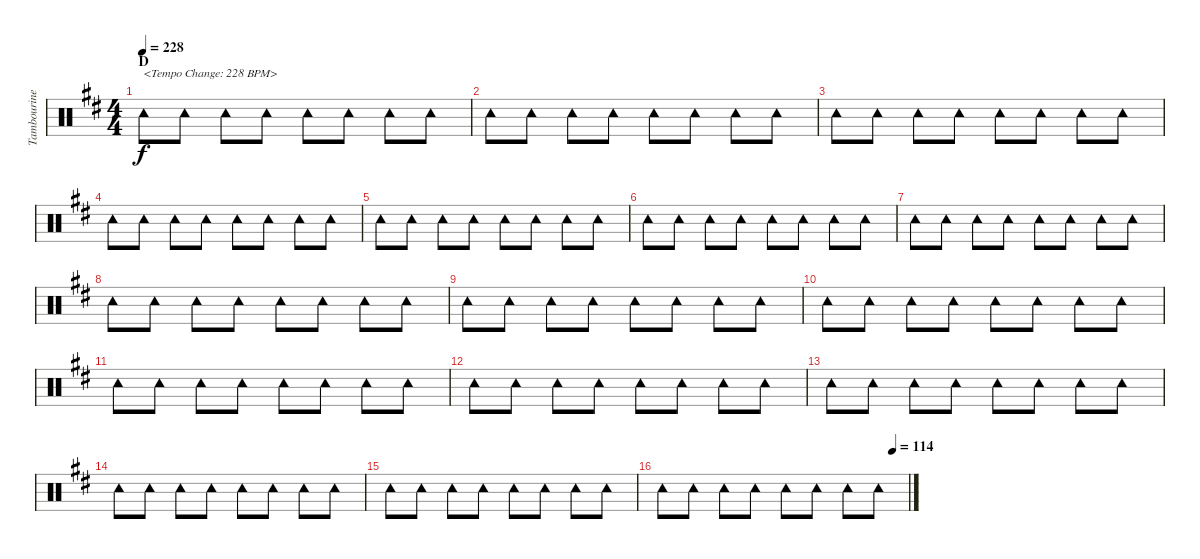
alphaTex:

\track ("Tambourine" "Tambourine") {instrument percussion}
\staff {score}
\articulation defaults
\ts (4 4)
\section ("" "D")
\tempo 228
\clef neutral
\ks d "Tambourine (hit)".8{txt "<Tempo Change: 228 BPM>" dy f} "Tambourine (hit)".8 "Tambourine (hit)".8 "Tambourine (hit)".8 "Tambourine (hit)".8 "Tambourine (hit)".8 "Tambourine (hit)".8 "Tambourine (hit)".8
|
"Tambourine (hit)".8 "Tambourine (hit)".8 "Tambourine (hit)".8 "Tambourine (hit)".8 "Tambourine (hit)".8 "Tambourine (hit)".8 "Tambourine (hit)".8 "Tambourine (hit)".8 |
"Tambourine (hit)".8 "Tambourine (hit)".8 "Tambourine (hit)".8 "Tambourine (hit)".8 "Tambourine (hit)".8 "Tambourine (hit)".8 "Tambourine (hit)".8 "Tambourine (hit)".8 |
"Tambourine (hit)".8 "Tambourine (hit)".8 "Tambourine (hit)".8 "Tambourine (hit)".8 "Tambourine (hit)".8 "Tambourine (hit)".8 "Tambourine (hit)".8 "Tambourine (hit)".8 |
"Tambourine (hit)".8 "Tambourine (hit)".8 "Tambourine (hit)".8 "Tambourine (hit)".8 "Tambourine (hit)".8 "Tambourine (hit)".8 "Tambourine (hit)".8 "Tambourine (hit)".8 |
"Tambourine (hit)".8 "Tambourine (hit)".8 "Tambourine (hit)".8 "Tambourine (hit)".8 "Tambourine (hit)".8 "Tambourine (hit)".8 "Tambourine (hit)".8 "Tambourine (hit)".8 |
"Tambourine (hit)".8 "Tambourine (hit)".8 "Tambourine (hit)".8 "Tambourine (hit)".8 "Tambourine (hit)".8 "Tambourine (hit)".8 "Tambourine (hit)".8 "Tambourine (hit)".8 |
"Tambourine (hit)".8 "Tambourine (hit)".8 "Tambourine (hit)".8 "Tambourine (hit)".8 "Tambourine (hit)".8 "Tambourine (hit)".8 "Tambourine (hit)".8 "Tambourine (hit)".8 |
"Tambourine (hit)".8 "Tambourine (hit)".8 "Tambourine (hit)".8 "Tambourine (hit)".8 "Tambourine (hit)".8 "Tambourine (hit)".8 "Tambourine (hit)".8 "Tambourine (hit)".8 |
"Tambourine (hit)".8 "Tambourine (hit)".8 "Tambourine (hit)".8 "Tambourine (hit)".8 "Tambourine (hit)".8 "Tambourine (hit)".8 "Tambourine (hit)".8 "Tambourine (hit)".8 |
"Tambourine (hit)".8 "Tambourine (hit)".8 "Tambourine (hit)".8 "Tambourine (hit)".8 "Tambourine (hit)".8 "Tambourine (hit)".8 "Tambourine (hit)".8 "Tambourine (hit)".8 |
"Tambourine (hit)".8 "Tambourine (hit)".8 "Tambourine (hit)".8 "Tambourine (hit)".8 "Tambourine (hit)".8 "Tambourine (hit)".8 "Tambourine (hit)".8 "Tambourine (hit)".8 |
"Tambourine (hit)".8 "Tambourine (hit)".8 "Tambourine (hit)".8 "Tambourine (hit)".8 "Tambourine (hit)".8 "Tambourine (hit)".8 "Tambourine (hit)".8 "Tambourine (hit)".8 |
"Tambourine (hit)".8 "Tambourine (hit)".8 "Tambourine (hit)".8 "Tambourine (hit)".8 "Tambourine (hit)".8 "Tambourine (hit)".8 "Tambourine (hit)".8 "Tambourine (hit)".8 |
"Tambourine (hit)".8 "Tambourine (hit)".8 "Tambourine (hit)".8 "Tambourine (hit)".8 "Tambourine (hit)".8 "Tambourine (hit)".8 "Tambourine (hit)".8 "Tambourine (hit)".8 |
\tempo (114 0.9375)
"Tambourine (hit)".8 "Tambourine (hit)".8 "Tambourine (hit)".8 "Tambourine (hit)".8 "Tambourine (hit)".8 "Tambourine (hit)".8 "Tambourine (hit)".8 "Tambourine (hit)".8
